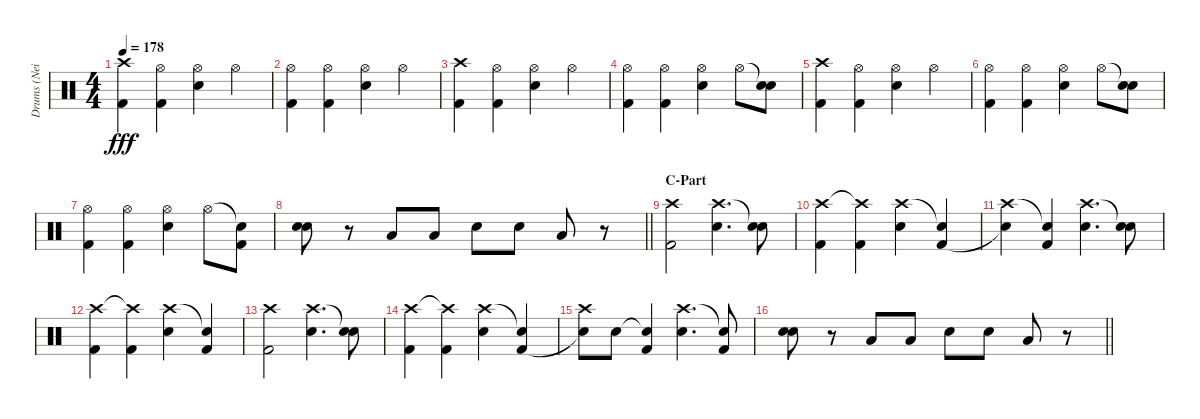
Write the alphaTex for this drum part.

\track ("Drums (Neil Sanderson)" "Drums (Nei") {instrument percussion}
\staff {score}
\articulation defaults
\ts (4 4)
\tempo 178
\clef neutral
\ks c
("Crash high (hit)" "Kick (hit) 2").4{dy fff} ("Hi-Hat (open)" "Kick (hit) 2").4 ("Hi-Hat (open)" "Snare (hit) 2").4 "Hi-Hat (open)".4 |
("Hi-Hat (open)" "Kick (hit) 2").4 ("Hi-Hat (open)" "Kick (hit) 2").4 ("Hi-Hat (open)" "Snare (hit) 2").4 "Hi-Hat (open)".4 |
("Crash high (hit)" "Kick (hit) 2").4 ("Hi-Hat (open)" "Kick (hit) 2").4 ("Hi-Hat (open)" "Snare (hit) 2").4 "Hi-Hat (open)".4 |
("Hi-Hat (open)" "Kick (hit) 2").4 ("Hi-Hat (open)" "Kick (hit) 2").4 ("Hi-Hat (open)" "Snare (hit) 2").4 "Hi-Hat (open)".8 ("Snare (hit)"{t} "Snare (hit) 2").8 |
("Crash high (hit)" "Kick (hit) 2").4 ("Hi-Hat (open)" "Kick (hit) 2").4 ("Hi-Hat (open)" "Snare (hit) 2").4 "Hi-Hat (open)".4 |
("Hi-Hat (open)" "Kick (hit) 2").4 ("Hi-Hat (open)" "Kick (hit) 2").4 ("Hi-Hat (open)" "Snare (hit) 2").4 "Hi-Hat (open)".8 ("Snare (hit)"{t} "Snare (hit) 2").8 |
("Hi-Hat (open)" "Kick (hit) 2").4 ("Hi-Hat (open)" "Kick (hit) 2").4 ("Hi-Hat (open)" "Snare (hit) 2").4 "Hi-Hat (open)".8 ("Snare (hit)"{t} "Kick (hit) 2").8 |
\barLineRight lightlight
("Snare (hit) 2" "Snare (hit) 2").8{bd 240} r.8 "Low Tom (hit)".8 "Low Tom (hit)".8 "Snare (hit) 2".8 "Snare (hit) 2".8 "Low Tom (hit)".8 r.8 |
\section ("" "C-Part")
("Crash high (hit)" "Kick (hit) 2").2 ("Crash high (hit)" "Snare (hit) 2").4{d} ("Snare (hit)"{t} "Snare (hit) 2").8 |
("Crash high (hit)" "Kick (hit) 2").4 ("Crash high (hit)"{t} "Kick (hit) 2").4 ("Crash high (hit)" "Snare (hit) 2").4 ("Snare (hit)"{t} "Kick (hit) 2").4 |
("Crash high (hit)" "Snare (hit)"{t}).4 ("Snare (hit)"{t} "Kick (hit) 2").4 ("Crash high (hit)" "Snare (hit) 2").4{d} ("Snare (hit)"{t} "Snare (hit) 2").8 |
("Crash high (hit)" "Kick (hit) 2").4 ("Crash high (hit)"{t} "Kick (hit) 2").4 ("Crash high (hit)" "Snare (hit) 2").4 ("Snare (hit)"{t} "Kick (hit) 2").4 |
("Crash high (hit)" "Kick (hit) 2").2 ("Crash high (hit)" "Snare (hit) 2").4{d} ("Snare (hit)"{t} "Snare (hit) 2").8 |
("Crash high (hit)" "Kick (hit) 2").4 ("Crash high (hit)"{t} "Kick (hit) 2").4 ("Crash high (hit)" "Snare (hit) 2").4 ("Snare (hit)"{t} "Kick (hit) 2").4 |
("Crash high (hit)" "Snare (hit)"{t}).8 "Snare (hit) 2".8 ("Snare (hit)"{t} "Kick (hit) 2").4 ("Crash high (hit)" "Snare (hit) 2").4{d} ("Snare (hit)"{t} "Kick (hit) 2").8 |
\barLineRight lightlight
("Snare (hit) 2" "Snare (hit) 2").8{bd 240} r.8 "Low Tom (hit)".8 "Low Tom (hit)".8 "Snare (hit) 2".8 "Snare (hit) 2".8 "Low Tom (hit)".8 r.8
